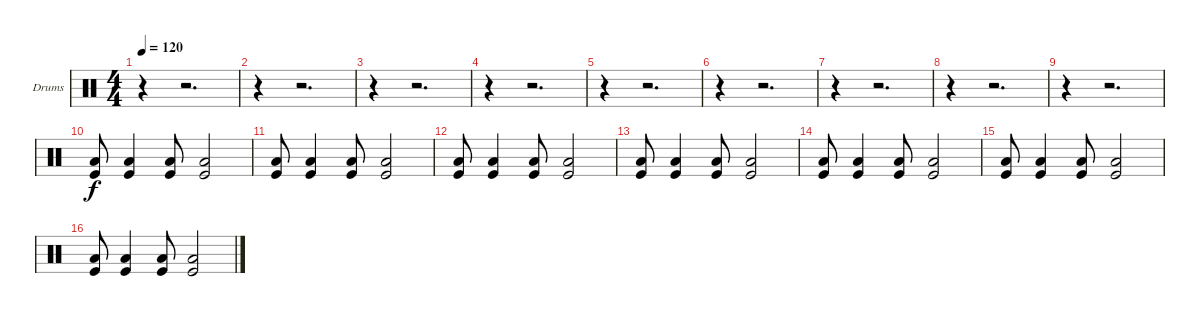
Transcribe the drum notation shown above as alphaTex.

\bracketExtendMode groupsimilarinstruments
\firstSystemTrackNameOrientation horizontal
\otherSystemsTrackNameOrientation horizontal
\track ("Drumkit" "Drums") {instrument percussion}
\staff {score}
\articulation defaults
\ts (4 4)
\tempo 120
\clef neutral
\ks c
r.4{dy f} r.2{d} |
r.4 r.2{d} |
r.4 r.2{d} |
r.4 r.2{d} |
r.4 r.2{d} |
r.4 r.2{d} |
r.4 r.2{d} |
r.4 r.2{d} |
r.4 r.2{d} |
("Low Tom (hit)" "Kick (hit)").8 ("Low Tom (hit)" "Kick (hit)").4 ("Low Tom (hit)" "Kick (hit)").8 ("Low Tom (hit)" "Kick (hit)").2 |
("Low Tom (hit)" "Kick (hit)").8 ("Low Tom (hit)" "Kick (hit)").4 ("Low Tom (hit)" "Kick (hit)").8 ("Low Tom (hit)" "Kick (hit)").2 |
("Low Tom (hit)" "Kick (hit)").8 ("Low Tom (hit)" "Kick (hit)").4 ("Low Tom (hit)" "Kick (hit)").8 ("Low Tom (hit)" "Kick (hit)").2 |
("Low Tom (hit)" "Kick (hit)").8 ("Low Tom (hit)" "Kick (hit)").4 ("Low Tom (hit)" "Kick (hit)").8 ("Low Tom (hit)" "Kick (hit)").2 |
("Low Tom (hit)" "Kick (hit)").8 ("Low Tom (hit)" "Kick (hit)").4 ("Low Tom (hit)" "Kick (hit)").8 ("Low Tom (hit)" "Kick (hit)").2 |
("Low Tom (hit)" "Kick (hit)").8 ("Low Tom (hit)" "Kick (hit)").4 ("Low Tom (hit)" "Kick (hit)").8 ("Low Tom (hit)" "Kick (hit)").2 |
("Low Tom (hit)" "Kick (hit)").8 ("Low Tom (hit)" "Kick (hit)").4 ("Low Tom (hit)" "Kick (hit)").8 ("Low Tom (hit)" "Kick (hit)").2
